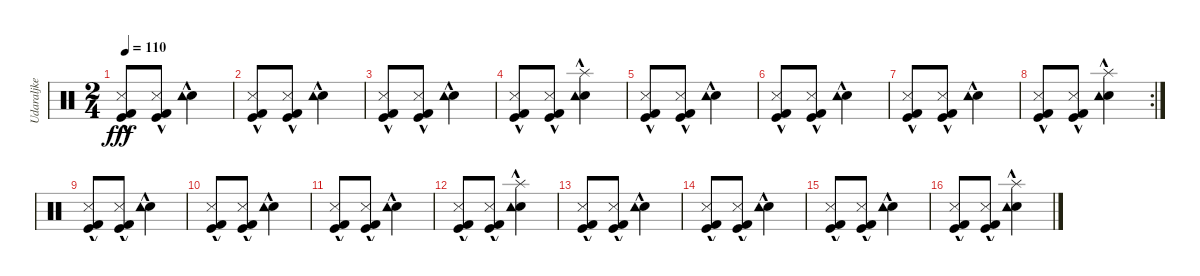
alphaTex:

\track ("Udaraljke" "Udaraljke") {instrument percussion}
\staff {score}
\articulation defaults
\ts (2 4)
\tempo 110
\clef neutral
\ks c
("Kick (hit) 2"{hac} "Kick (hit)"{hac} "Snare (side stick) 3"{hac}).8{dy fff} ("Kick (hit) 2"{hac} "Kick (hit)"{hac} "Snare (side stick) 3"{hac}).8 ("Snare (hit) 2"{hac} "Tambourine (hit)"{hac}).4 |
("Kick (hit) 2"{hac} "Kick (hit)"{hac} "Snare (side stick) 3"{hac}).8 ("Kick (hit) 2"{hac} "Kick (hit)"{hac} "Snare (side stick) 3"{hac}).8 ("Snare (hit) 2"{hac} "Tambourine (hit)"{hac}).4 |
("Kick (hit) 2"{hac} "Kick (hit)"{hac} "Snare (side stick) 3"{hac}).8 ("Kick (hit) 2"{hac} "Kick (hit)"{hac} "Snare (side stick) 3"{hac}).8 ("Snare (hit) 2"{hac} "Tambourine (hit)"{hac}).4 |
("Kick (hit) 2"{hac} "Kick (hit)"{hac} "Snare (side stick) 3"{hac}).8 ("Kick (hit) 2"{hac} "Kick (hit)"{hac} "Snare (side stick) 3"{hac}).8 ("Snare (hit) 2"{hac} "Splash (hit)"{hac} "Tambourine (hit)"{hac}).4 |
("Kick (hit) 2"{hac} "Kick (hit)"{hac} "Snare (side stick) 3"{hac}).8 ("Kick (hit) 2"{hac} "Kick (hit)"{hac} "Snare (side stick) 3"{hac}).8 ("Snare (hit) 2"{hac} "Tambourine (hit)"{hac}).4 |
("Kick (hit) 2"{hac} "Kick (hit)"{hac} "Snare (side stick) 3"{hac}).8 ("Kick (hit) 2"{hac} "Kick (hit)"{hac} "Snare (side stick) 3"{hac}).8 ("Snare (hit) 2"{hac} "Tambourine (hit)"{hac}).4 |
("Kick (hit) 2"{hac} "Kick (hit)"{hac} "Snare (side stick) 3"{hac}).8 ("Kick (hit) 2"{hac} "Kick (hit)"{hac} "Snare (side stick) 3"{hac}).8 ("Snare (hit) 2"{hac} "Tambourine (hit)"{hac}).4 |
\rc 2
("Kick (hit) 2"{hac} "Kick (hit)"{hac} "Snare (side stick) 3"{hac}).8 ("Kick (hit) 2"{hac} "Kick (hit)"{hac} "Snare (side stick) 3"{hac}).8 ("Snare (hit) 2"{hac} "Splash (hit)"{hac} "Tambourine (hit)"{hac}).4 |
("Kick (hit) 2"{hac} "Kick (hit)"{hac} "Snare (side stick) 3"{hac}).8 ("Kick (hit) 2"{hac} "Kick (hit)"{hac} "Snare (side stick) 3"{hac}).8 ("Snare (hit) 2"{hac} "Tambourine (hit)"{hac}).4 |
("Kick (hit) 2"{hac} "Kick (hit)"{hac} "Snare (side stick) 3"{hac}).8 ("Kick (hit) 2"{hac} "Kick (hit)"{hac} "Snare (side stick) 3"{hac}).8 ("Snare (hit) 2"{hac} "Tambourine (hit)"{hac}).4 |
("Kick (hit) 2"{hac} "Kick (hit)"{hac} "Snare (side stick) 3"{hac}).8 ("Kick (hit) 2"{hac} "Kick (hit)"{hac} "Snare (side stick) 3"{hac}).8 ("Snare (hit) 2"{hac} "Tambourine (hit)"{hac}).4 |
("Kick (hit) 2"{hac} "Kick (hit)"{hac} "Snare (side stick) 3"{hac}).8 ("Kick (hit) 2"{hac} "Kick (hit)"{hac} "Snare (side stick) 3"{hac}).8 ("Snare (hit) 2"{hac} "Splash (hit)"{hac} "Tambourine (hit)"{hac}).4 |
("Kick (hit) 2"{hac} "Kick (hit)"{hac} "Snare (side stick) 3"{hac}).8 ("Kick (hit) 2"{hac} "Kick (hit)"{hac} "Snare (side stick) 3"{hac}).8 ("Snare (hit) 2"{hac} "Tambourine (hit)"{hac}).4 |
("Kick (hit) 2"{hac} "Kick (hit)"{hac} "Snare (side stick) 3"{hac}).8 ("Kick (hit) 2"{hac} "Kick (hit)"{hac} "Snare (side stick) 3"{hac}).8 ("Snare (hit) 2"{hac} "Tambourine (hit)"{hac}).4 |
("Kick (hit) 2"{hac} "Kick (hit)"{hac} "Snare (side stick) 3"{hac}).8 ("Kick (hit) 2"{hac} "Kick (hit)"{hac} "Snare (side stick) 3"{hac}).8 ("Snare (hit) 2"{hac} "Tambourine (hit)"{hac}).4 |
("Kick (hit) 2"{hac} "Kick (hit)"{hac} "Snare (side stick) 3"{hac}).8 ("Kick (hit) 2"{hac} "Kick (hit)"{hac} "Snare (side stick) 3"{hac}).8 ("Snare (hit) 2"{hac} "Splash (hit)"{hac} "Tambourine (hit)"{hac}).4
